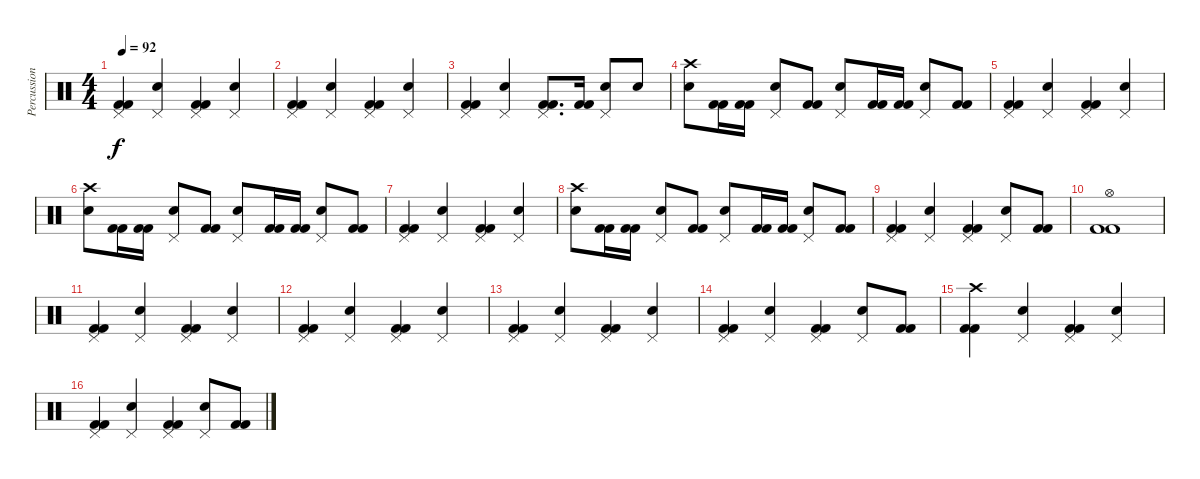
\track ("Percussion" "Percussion") {instrument percussion}
\staff {score}
\articulation defaults
\ts (4 4)
\tempo 92
\clef neutral
\ks c
("Pedal Hi-Hat (hit)" "Kick (hit) 2" "Kick (hit) 2").4{dy f} ("Pedal Hi-Hat (hit)" "Electric Snare (hit)").4 ("Pedal Hi-Hat (hit)" "Kick (hit) 2" "Kick (hit) 2").4 ("Pedal Hi-Hat (hit)" "Electric Snare (hit)").4 |
("Pedal Hi-Hat (hit)" "Kick (hit) 2" "Kick (hit) 2").4 ("Pedal Hi-Hat (hit)" "Electric Snare (hit)").4 ("Pedal Hi-Hat (hit)" "Kick (hit) 2" "Kick (hit) 2").4 ("Pedal Hi-Hat (hit)" "Electric Snare (hit)").4 |
("Pedal Hi-Hat (hit)" "Kick (hit) 2" "Kick (hit) 2").4 ("Pedal Hi-Hat (hit)" "Electric Snare (hit)").4 ("Pedal Hi-Hat (hit)" "Kick (hit) 2" "Kick (hit) 2").8{d} ("Kick (hit) 2" "Kick (hit) 2").16 ("Pedal Hi-Hat (hit)" "Electric Snare (hit)").8 "Electric Snare (hit)".8 |
("Crash high (hit)" "Electric Snare (hit)").8 ("Kick (hit) 2" "Kick (hit) 2").16 ("Kick (hit) 2" "Kick (hit) 2").16 ("Pedal Hi-Hat (hit)" "Electric Snare (hit)").8 ("Kick (hit) 2" "Kick (hit) 2").8 ("Pedal Hi-Hat (hit)" "Electric Snare (hit)").8 ("Kick (hit) 2" "Kick (hit) 2").16 ("Kick (hit) 2" "Kick (hit) 2").16 ("Pedal Hi-Hat (hit)" "Electric Snare (hit)").8 ("Kick (hit) 2" "Kick (hit) 2").8 |
("Pedal Hi-Hat (hit)" "Kick (hit) 2" "Kick (hit) 2").4 ("Pedal Hi-Hat (hit)" "Electric Snare (hit)").4 ("Pedal Hi-Hat (hit)" "Kick (hit) 2" "Kick (hit) 2").4 ("Pedal Hi-Hat (hit)" "Electric Snare (hit)").4 |
("Crash high (hit)" "Electric Snare (hit)").8 ("Kick (hit) 2" "Kick (hit) 2").16 ("Kick (hit) 2" "Kick (hit) 2").16 ("Pedal Hi-Hat (hit)" "Electric Snare (hit)").8 ("Kick (hit) 2" "Kick (hit) 2").8 ("Pedal Hi-Hat (hit)" "Electric Snare (hit)").8 ("Kick (hit) 2" "Kick (hit) 2").16 ("Kick (hit) 2" "Kick (hit) 2").16 ("Pedal Hi-Hat (hit)" "Electric Snare (hit)").8 ("Kick (hit) 2" "Kick (hit) 2").8 |
("Pedal Hi-Hat (hit)" "Kick (hit) 2" "Kick (hit) 2").4 ("Pedal Hi-Hat (hit)" "Electric Snare (hit)").4 ("Pedal Hi-Hat (hit)" "Kick (hit) 2" "Kick (hit) 2").4 ("Pedal Hi-Hat (hit)" "Electric Snare (hit)").4 |
("Crash high (hit)" "Electric Snare (hit)").8 ("Kick (hit) 2" "Kick (hit) 2").16 ("Kick (hit) 2" "Kick (hit) 2").16 ("Pedal Hi-Hat (hit)" "Electric Snare (hit)").8 ("Kick (hit) 2" "Kick (hit) 2").8 ("Pedal Hi-Hat (hit)" "Electric Snare (hit)").8 ("Kick (hit) 2" "Kick (hit) 2").16 ("Kick (hit) 2" "Kick (hit) 2").16 ("Pedal Hi-Hat (hit)" "Electric Snare (hit)").8 ("Kick (hit) 2" "Kick (hit) 2").8 |
("Pedal Hi-Hat (hit)" "Kick (hit) 2" "Kick (hit) 2").4 ("Pedal Hi-Hat (hit)" "Electric Snare (hit)").4 ("Pedal Hi-Hat (hit)" "Kick (hit) 2" "Kick (hit) 2").4 ("Pedal Hi-Hat (hit)" "Electric Snare (hit)").8 ("Kick (hit) 2" "Kick (hit) 2").8 |
("Hi-Hat (open)" "Kick (hit) 2" "Kick (hit) 2").1 |
("Pedal Hi-Hat (hit)" "Kick (hit) 2" "Kick (hit) 2").4 ("Pedal Hi-Hat (hit)" "Electric Snare (hit)").4 ("Pedal Hi-Hat (hit)" "Kick (hit) 2" "Kick (hit) 2").4 ("Pedal Hi-Hat (hit)" "Electric Snare (hit)").4 |
("Pedal Hi-Hat (hit)" "Kick (hit) 2" "Kick (hit) 2").4 ("Pedal Hi-Hat (hit)" "Electric Snare (hit)").4 ("Pedal Hi-Hat (hit)" "Kick (hit) 2" "Kick (hit) 2").4 ("Pedal Hi-Hat (hit)" "Electric Snare (hit)").4 |
("Pedal Hi-Hat (hit)" "Kick (hit) 2" "Kick (hit) 2").4 ("Pedal Hi-Hat (hit)" "Electric Snare (hit)").4 ("Pedal Hi-Hat (hit)" "Kick (hit) 2" "Kick (hit) 2").4 ("Pedal Hi-Hat (hit)" "Electric Snare (hit)").4 |
("Pedal Hi-Hat (hit)" "Kick (hit) 2" "Kick (hit) 2").4 ("Pedal Hi-Hat (hit)" "Electric Snare (hit)").4 ("Pedal Hi-Hat (hit)" "Kick (hit) 2" "Kick (hit) 2").4 ("Pedal Hi-Hat (hit)" "Electric Snare (hit)").8 ("Kick (hit) 2" "Kick (hit) 2").8 |
("Crash high (hit)" "Kick (hit) 2" "Kick (hit) 2").4 ("Pedal Hi-Hat (hit)" "Electric Snare (hit)").4 ("Pedal Hi-Hat (hit)" "Kick (hit) 2" "Kick (hit) 2").4 ("Pedal Hi-Hat (hit)" "Electric Snare (hit)").4 |
("Pedal Hi-Hat (hit)" "Kick (hit) 2" "Kick (hit) 2").4 ("Pedal Hi-Hat (hit)" "Electric Snare (hit)").4 ("Pedal Hi-Hat (hit)" "Kick (hit) 2" "Kick (hit) 2").4 ("Pedal Hi-Hat (hit)" "Electric Snare (hit)").8 ("Kick (hit) 2" "Kick (hit) 2").8
